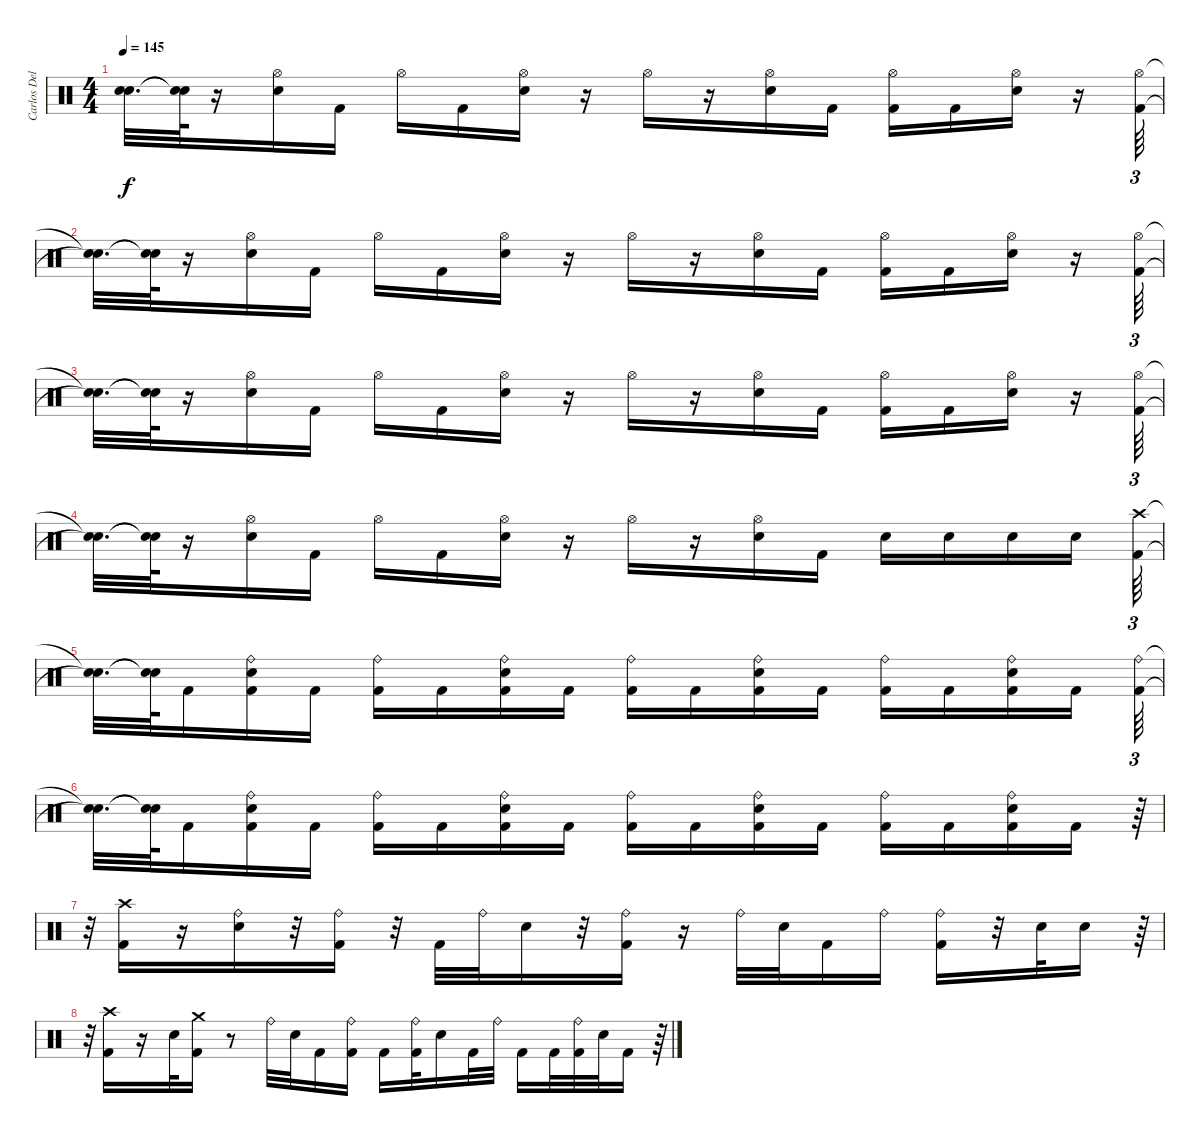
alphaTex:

\track ("Carlos Delgado" "Carlos Del") {instrument percussion}
\staff {score}
\articulation defaults
\ts (4 4)
\tempo 145
\clef neutral
\ks c
("Snare (hit)"{t} "Snare (hit)"{t}).32{d dy f} ("Snare (hit)"{t} "Snare (hit)"{t}).64 r.16 ("Electric Snare (hit)" "Hi-Hat (open)").16 "Kick (hit) 2".16 "Hi-Hat (open)".16 "Kick (hit) 2".16 ("Electric Snare (hit)" "Hi-Hat (open)").16 r.16 "Hi-Hat (open)".16 r.16 ("Hi-Hat (open)" "Electric Snare (hit)").16 "Kick (hit) 2".16 ("Hi-Hat (open)" "Kick (hit) 2").16 "Kick (hit) 2".16 ("Hi-Hat (open)" "Electric Snare (hit)").16 r.16 ("Hi-Hat (open)" "Kick (hit) 2").64{tu (3 2)} |
("Snare (hit)"{t} "Snare (hit)"{t}).32{d} ("Snare (hit)"{t} "Snare (hit)"{t}).64 r.16 ("Hi-Hat (open)" "Electric Snare (hit)").16 "Kick (hit) 2".16 "Hi-Hat (open)".16 "Kick (hit) 2".16 ("Electric Snare (hit)" "Hi-Hat (open)").16 r.16 "Hi-Hat (open)".16 r.16 ("Hi-Hat (open)" "Electric Snare (hit)").16 "Kick (hit) 2".16 ("Kick (hit) 2" "Hi-Hat (open)").16 "Kick (hit) 2".16 ("Hi-Hat (open)" "Electric Snare (hit)").16 r.16 ("Hi-Hat (open)" "Kick (hit) 2").64{tu (3 2)} |
("Snare (hit)"{t} "Snare (hit)"{t}).32{d} ("Snare (hit)"{t} "Snare (hit)"{t}).64 r.16 ("Hi-Hat (open)" "Electric Snare (hit)").16 "Kick (hit) 2".16 "Hi-Hat (open)".16 "Kick (hit) 2".16 ("Hi-Hat (open)" "Electric Snare (hit)").16 r.16 "Hi-Hat (open)".16 r.16 ("Hi-Hat (open)" "Electric Snare (hit)").16 "Kick (hit) 2".16 ("Hi-Hat (open)" "Kick (hit) 2").16 "Kick (hit) 2".16 ("Electric Snare (hit)" "Hi-Hat (open)").16 r.16 ("Kick (hit) 2" "Hi-Hat (open)").64{tu (3 2)} |
("Snare (hit)"{t} "Snare (hit)"{t}).32{d} ("Snare (hit)"{t} "Snare (hit)"{t}).64 r.16 ("Electric Snare (hit)" "Hi-Hat (open)").16 "Kick (hit) 2".16 "Hi-Hat (open)".16 "Kick (hit) 2".16 ("Hi-Hat (open)" "Electric Snare (hit)").16 r.16 "Hi-Hat (open)".16 r.16 ("Electric Snare (hit)" "Hi-Hat (open)").16 "Kick (hit) 2".16 "Electric Snare (hit)".16 "Electric Snare (hit)".16 "Electric Snare (hit)".16 "Electric Snare (hit)".16 ("Kick (hit) 2" "Crash high (hit)").64{tu (3 2)} |
("Snare (hit)"{t} "Snare (hit)"{t}).32{d} ("Snare (hit)"{t} "Snare (hit)"{t}).64 "Kick (hit) 2".16 ("Ride (bell)" "Kick (hit) 2" "Electric Snare (hit)").16 "Kick (hit) 2".16 ("Kick (hit) 2" "Ride (bell)").16 "Kick (hit) 2".16 ("Kick (hit) 2" "Electric Snare (hit)" "Ride (bell)").16 "Kick (hit) 2".16 ("Kick (hit) 2" "Ride (bell)").16 "Kick (hit) 2".16 ("Kick (hit) 2" "Electric Snare (hit)" "Ride (bell)").16 "Kick (hit) 2".16 ("Ride (bell)" "Kick (hit) 2").16 "Kick (hit) 2".16 ("Kick (hit) 2" "Electric Snare (hit)" "Ride (bell)").16 "Kick (hit) 2".16 ("Kick (hit) 2" "Ride (bell)").64{tu (3 2)} |
("Snare (hit)"{t} "Snare (hit)"{t}).32{d} ("Snare (hit)"{t} "Snare (hit)"{t}).64 "Kick (hit) 2".16 ("Ride (bell)" "Kick (hit) 2" "Electric Snare (hit)").16 "Kick (hit) 2".16 ("Kick (hit) 2" "Ride (bell)").16 "Kick (hit) 2".16 ("Kick (hit) 2" "Electric Snare (hit)" "Ride (bell)").16 "Kick (hit) 2".16 ("Kick (hit) 2" "Ride (bell)").16 "Kick (hit) 2".16 ("Kick (hit) 2" "Ride (bell)" "Electric Snare (hit)").16 "Kick (hit) 2".16 ("Kick (hit) 2" "Ride (bell)").16 "Kick (hit) 2".16 ("Ride (bell)" "Kick (hit) 2" "Electric Snare (hit)").16 "Kick (hit) 2".16 r.64{tu (3 2)} |
r.32{tu (3 2)} ("Kick (hit) 2" "Crash high (hit)").16 r.16 ("Electric Snare (hit)" "Ride (bell)").16 r.32 ("Kick (hit) 2" "Ride (bell)").16 r.32 "Kick (hit) 2".32 "Ride (bell)".32 "Electric Snare (hit)".16 r.32 ("Kick (hit) 2" "Ride (bell)").16 r.16 "Ride (bell)".32 "Electric Snare (hit)".32 "Kick (hit) 2".16 "Ride (bell)".16 ("Ride (bell)" "Kick (hit) 2").16 r.32 "Electric Snare (hit)".32 "Electric Snare (hit)".16 r.64{tu (3 2)} |
r.32{tu (3 2)} ("Crash high (hit)" "Kick (hit) 2").16 r.16 "Electric Snare (hit)".32 ("Crash medium (hit)" "Kick (hit) 2").16 r.8 "Ride (bell)".32 "Electric Snare (hit)".32 "Kick (hit) 2".16 ("Kick (hit) 2" "Ride (bell)").16 "Kick (hit) 2".16 ("Kick (hit) 2" "Ride (bell)").32 "Electric Snare (hit)".16 "Kick (hit) 2".32 "Ride (bell)".32 "Kick (hit) 2".16 "Kick (hit) 2".32 ("Kick (hit) 2" "Ride (bell)").32 "Electric Snare (hit)".32 "Kick (hit) 2".16 r.64{tu (3 2)}
